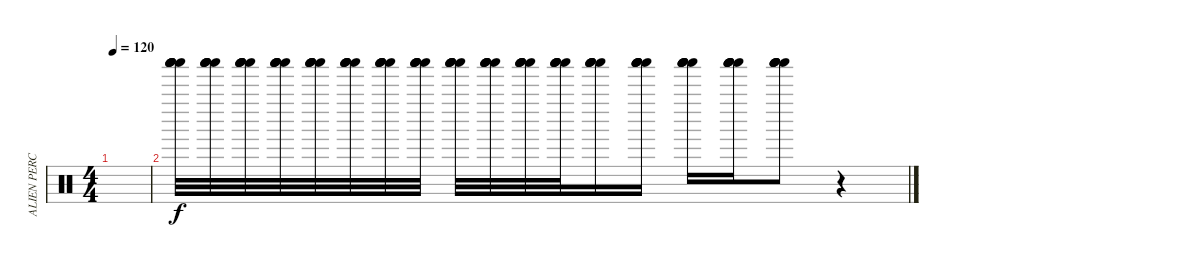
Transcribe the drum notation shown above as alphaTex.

\track ("ALIEN PERCUSSION" "ALIEN PERC") {instrument percussion}
\staff {score}
\articulation defaults
\ts (4 4)
\tempo 120
\clef neutral
\ks c
|
("Shaker (hit)" "Shaker (hit)" "Shaker (hit)" "Shaker (hit)" "Shaker (hit)").32 ("Shaker (hit)" "Shaker (hit)" "Shaker (hit)" "Shaker (hit)" "Shaker (hit)").32 ("Shaker (hit)" "Shaker (hit)" "Shaker (hit)" "Shaker (hit)" "Shaker (hit)").32 ("Shaker (hit)" "Shaker (hit)" "Shaker (hit)" "Shaker (hit)" "Shaker (hit)").32 ("Shaker (hit)" "Shaker (hit)" "Shaker (hit)" "Shaker (hit)" "Shaker (hit)").32 ("Shaker (hit)" "Shaker (hit)" "Shaker (hit)" "Shaker (hit)" "Shaker (hit)").32 ("Shaker (hit)" "Shaker (hit)" "Shaker (hit)" "Shaker (hit)" "Shaker (hit)").32 ("Shaker (hit)" "Shaker (hit)" "Shaker (hit)" "Shaker (hit)" "Shaker (hit)").32 ("Shaker (hit)" "Shaker (hit)" "Shaker (hit)" "Shaker (hit)" "Shaker (hit)").32 ("Shaker (hit)" "Shaker (hit)" "Shaker (hit)" "Shaker (hit)" "Shaker (hit)").32 ("Shaker (hit)" "Shaker (hit)" "Shaker (hit)" "Shaker (hit)" "Shaker (hit)").32 ("Shaker (hit)" "Shaker (hit)" "Shaker (hit)" "Shaker (hit)" "Shaker (hit)").32 ("Shaker (hit)" "Shaker (hit)" "Shaker (hit)" "Shaker (hit)" "Shaker (hit)").16 ("Shaker (hit)" "Shaker (hit)" "Shaker (hit)" "Shaker (hit)" "Shaker (hit)").16 ("Shaker (hit)" "Shaker (hit)" "Shaker (hit)" "Shaker (hit)" "Shaker (hit)").16 ("Shaker (hit)" "Shaker (hit)" "Shaker (hit)" "Shaker (hit)" "Shaker (hit)").16 ("Shaker (hit)" "Shaker (hit)" "Shaker (hit)" "Shaker (hit)" "Shaker (hit)").8 r.4
